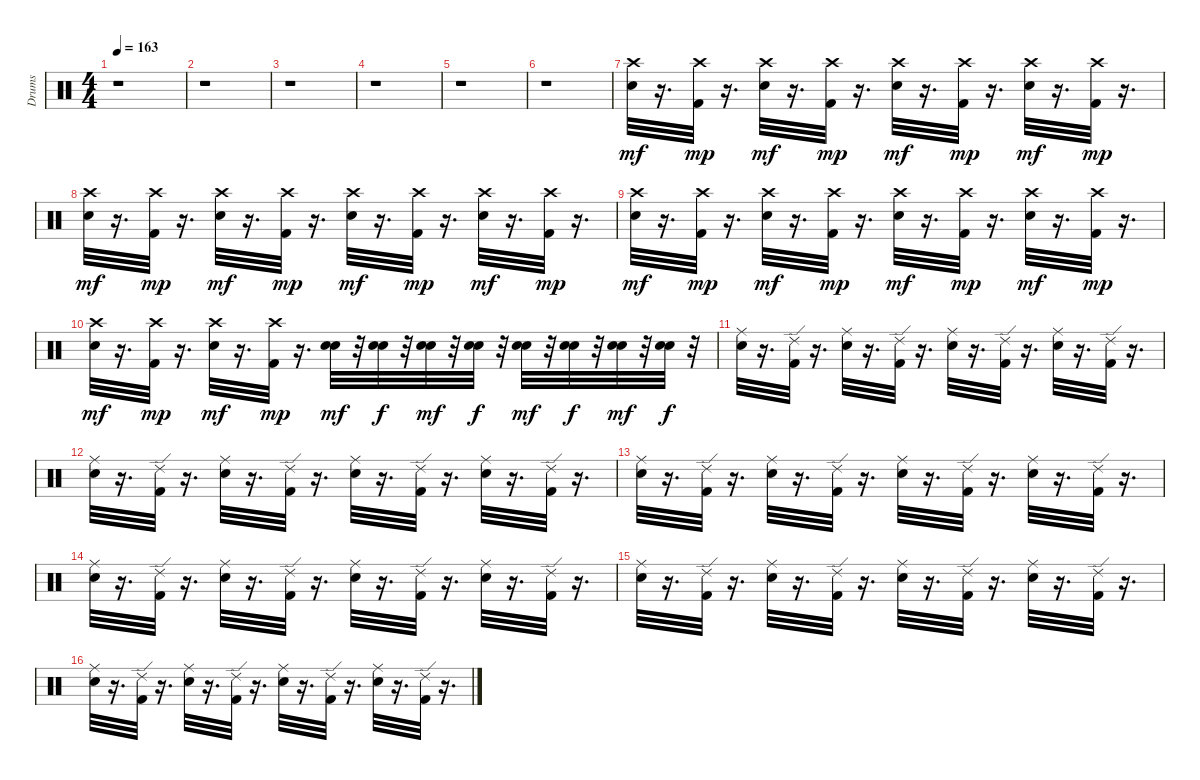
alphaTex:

\track ("Drums" "Drums") {instrument percussion}
\staff {score}
\articulation defaults
\ts (4 4)
\tempo 163
\clef neutral
\ks c
r.1{dy mf} |
r.1 |
r.1 |
r.1 |
r.1 |
r.1 |
("Snare (hit) 2" "Crash high (hit)").32 r.16{d} ("Kick (hit) 2" "Crash high (hit)").32{dy mp} r.16{d} ("Snare (hit) 2" "Crash high (hit)").32{dy mf} r.16{d} ("Kick (hit) 2" "Crash high (hit)").32{dy mp} r.16{d} ("Snare (hit) 2" "Crash high (hit)").32{dy mf} r.16{d} ("Kick (hit) 2" "Crash high (hit)").32{dy mp} r.16{d} ("Snare (hit) 2" "Crash high (hit)").32{dy mf} r.16{d} ("Kick (hit) 2" "Crash high (hit)").32{dy mp} r.16{d} |
("Snare (hit) 2" "Crash high (hit)").32{dy mf} r.16{d} ("Kick (hit) 2" "Crash high (hit)").32{dy mp} r.16{d} ("Snare (hit) 2" "Crash high (hit)").32{dy mf} r.16{d} ("Kick (hit) 2" "Crash high (hit)").32{dy mp} r.16{d} ("Snare (hit) 2" "Crash high (hit)").32{dy mf} r.16{d} ("Kick (hit) 2" "Crash high (hit)").32{dy mp} r.16{d} ("Snare (hit) 2" "Crash high (hit)").32{dy mf} r.16{d} ("Kick (hit) 2" "Crash high (hit)").32{dy mp} r.16{d} |
("Snare (hit) 2" "Crash high (hit)").32{dy mf} r.16{d} ("Kick (hit) 2" "Crash high (hit)").32{dy mp} r.16{d} ("Snare (hit) 2" "Crash high (hit)").32{dy mf} r.16{d} ("Kick (hit) 2" "Crash high (hit)").32{dy mp} r.16{d} ("Snare (hit) 2" "Crash high (hit)").32{dy mf} r.16{d} ("Kick (hit) 2" "Crash high (hit)").32{dy mp} r.16{d} ("Snare (hit) 2" "Crash high (hit)").32{dy mf} r.16{d} ("Kick (hit) 2" "Crash high (hit)").32{dy mp} r.16{d} |
("Snare (hit) 2" "Crash high (hit)").32{dy mf} r.16{d} ("Kick (hit) 2" "Crash high (hit)").32{dy mp} r.16{d} ("Snare (hit) 2" "Crash high (hit)").32{dy mf} r.16{d} ("Kick (hit) 2" "Crash high (hit)").32{dy mp} r.16{d} ("Snare (hit) 2" "Electric Snare (hit)").32{dy mf} r.32 ("Snare (hit) 2" "Electric Snare (hit)").32{dy f} r.32 ("Snare (hit) 2" "Electric Snare (hit)").32{dy mf} r.32 ("Snare (hit) 2" "Electric Snare (hit)").32{dy f} r.32 ("Snare (hit) 2" "Electric Snare (hit)").32{dy mf} r.32 ("Snare (hit) 2" "Electric Snare (hit)").32{dy f} r.32 ("Snare (hit) 2" "Electric Snare (hit)").32{dy mf} r.32 ("Snare (hit) 2" "Electric Snare (hit)").32{dy f} r.32 |
("Snare (hit) 2" "Ride (middle)").32 r.16{d} ("Kick (hit) 2" "Ride (edge) 2").32 r.16{d} ("Snare (hit) 2" "Ride (middle)").32 r.16{d} ("Kick (hit) 2" "Ride (edge) 2").32 r.16{d} ("Snare (hit) 2" "Ride (middle)").32 r.16{d} ("Kick (hit) 2" "Ride (edge) 2").32 r.16{d} ("Snare (hit) 2" "Ride (middle)").32 r.16{d} ("Kick (hit) 2" "Ride (edge) 2").32 r.16{d} |
("Snare (hit) 2" "Ride (middle)").32 r.16{d} ("Kick (hit) 2" "Ride (edge) 2").32 r.16{d} ("Snare (hit) 2" "Ride (middle)").32 r.16{d} ("Kick (hit) 2" "Ride (edge) 2").32 r.16{d} ("Snare (hit) 2" "Ride (middle)").32 r.16{d} ("Kick (hit) 2" "Ride (edge) 2").32 r.16{d} ("Snare (hit) 2" "Ride (middle)").32 r.16{d} ("Kick (hit) 2" "Ride (edge) 2").32 r.16{d} |
("Snare (hit) 2" "Ride (middle)").32 r.16{d} ("Kick (hit) 2" "Ride (edge) 2").32 r.16{d} ("Snare (hit) 2" "Ride (middle)").32 r.16{d} ("Kick (hit) 2" "Ride (edge) 2").32 r.16{d} ("Snare (hit) 2" "Ride (middle)").32 r.16{d} ("Kick (hit) 2" "Ride (edge) 2").32 r.16{d} ("Snare (hit) 2" "Ride (middle)").32 r.16{d} ("Kick (hit) 2" "Ride (edge) 2").32 r.16{d} |
("Snare (hit) 2" "Ride (middle)").32 r.16{d} ("Kick (hit) 2" "Ride (edge) 2").32 r.16{d} ("Snare (hit) 2" "Ride (middle)").32 r.16{d} ("Kick (hit) 2" "Ride (edge) 2").32 r.16{d} ("Snare (hit) 2" "Ride (middle)").32 r.16{d} ("Kick (hit) 2" "Ride (edge) 2").32 r.16{d} ("Snare (hit) 2" "Ride (middle)").32 r.16{d} ("Kick (hit) 2" "Ride (edge) 2").32 r.16{d} |
("Snare (hit) 2" "Ride (middle)").32 r.16{d} ("Kick (hit) 2" "Ride (edge) 2").32 r.16{d} ("Snare (hit) 2" "Ride (middle)").32 r.16{d} ("Kick (hit) 2" "Ride (edge) 2").32 r.16{d} ("Snare (hit) 2" "Ride (middle)").32 r.16{d} ("Kick (hit) 2" "Ride (edge) 2").32 r.16{d} ("Snare (hit) 2" "Ride (middle)").32 r.16{d} ("Kick (hit) 2" "Ride (edge) 2").32 r.16{d} |
("Snare (hit) 2" "Ride (middle)").32 r.16{d} ("Kick (hit) 2" "Ride (edge) 2").32 r.16{d} ("Snare (hit) 2" "Ride (middle)").32 r.16{d} ("Kick (hit) 2" "Ride (edge) 2").32 r.16{d} ("Snare (hit) 2" "Ride (middle)").32 r.16{d} ("Kick (hit) 2" "Ride (edge) 2").32 r.16{d} ("Snare (hit) 2" "Ride (middle)").32 r.16{d} ("Kick (hit) 2" "Ride (edge) 2").32 r.16{d}
